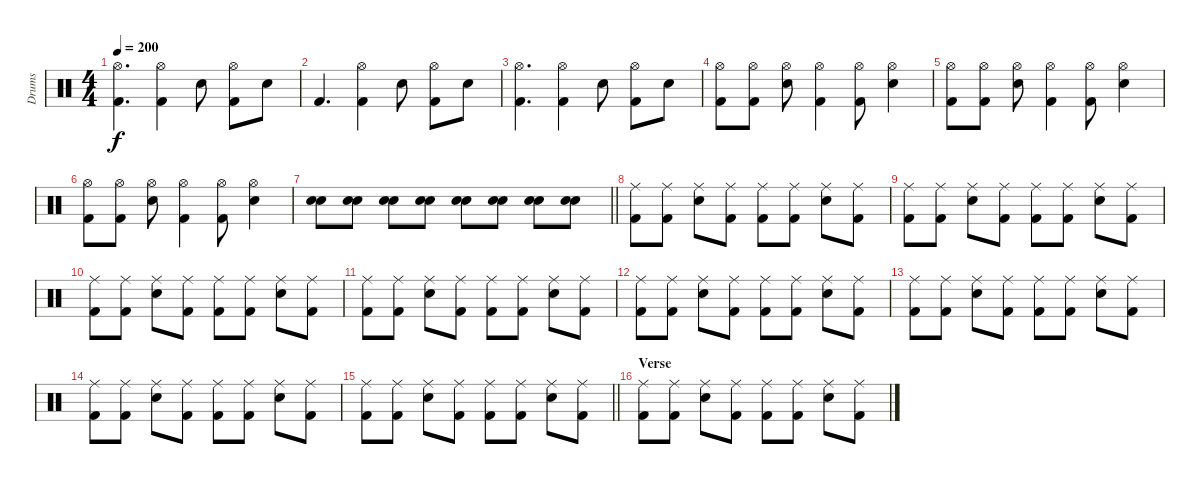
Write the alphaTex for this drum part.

\track ("Drums" "Drums") {instrument percussion}
\staff {score}
\articulation defaults
\ts (4 4)
\tempo 200
\clef neutral
\ks c
("Hi-Hat (open)" "Kick (hit) 2").4{d dy f} ("Hi-Hat (open)" "Kick (hit) 2").4 "Electric Snare (hit)".8 ("Hi-Hat (open)" "Kick (hit) 2").8 "Electric Snare (hit)".8 |
"Kick (hit) 2".4{d} ("Hi-Hat (open)" "Kick (hit) 2").4 "Electric Snare (hit)".8 ("Hi-Hat (open)" "Kick (hit) 2").8 "Electric Snare (hit)".8 |
("Hi-Hat (open)" "Kick (hit) 2").4{d} ("Hi-Hat (open)" "Kick (hit) 2").4 "Electric Snare (hit)".8 ("Hi-Hat (open)" "Kick (hit) 2").8 "Electric Snare (hit)".8 |
("Hi-Hat (open)" "Kick (hit) 2").8 ("Hi-Hat (open)" "Kick (hit) 2").8 ("Hi-Hat (open)" "Electric Snare (hit)").8 ("Hi-Hat (open)" "Kick (hit) 2").4 ("Hi-Hat (open)" "Kick (hit) 2").8 ("Hi-Hat (open)" "Electric Snare (hit)").4 |
("Hi-Hat (open)" "Kick (hit) 2").8 ("Hi-Hat (open)" "Kick (hit) 2").8 ("Hi-Hat (open)" "Electric Snare (hit)").8 ("Hi-Hat (open)" "Kick (hit) 2").4 ("Hi-Hat (open)" "Kick (hit) 2").8 ("Hi-Hat (open)" "Electric Snare (hit)").4 |
("Hi-Hat (open)" "Kick (hit) 2").8 ("Hi-Hat (open)" "Kick (hit) 2").8 ("Hi-Hat (open)" "Electric Snare (hit)").8 ("Hi-Hat (open)" "Kick (hit) 2").4 ("Hi-Hat (open)" "Kick (hit) 2").8 ("Hi-Hat (open)" "Electric Snare (hit)").4 |
\barLineRight lightlight
("Electric Snare (hit)" "Electric Snare (hit)").8 ("Electric Snare (hit)" "Electric Snare (hit)").8 ("Electric Snare (hit)" "Electric Snare (hit)").8 ("Electric Snare (hit)" "Electric Snare (hit)").8 ("Electric Snare (hit)" "Electric Snare (hit)").8 ("Electric Snare (hit)" "Electric Snare (hit)").8 ("Electric Snare (hit)" "Electric Snare (hit)").8 ("Electric Snare (hit)" "Electric Snare (hit)").8 |
("Ride (middle)" "Kick (hit) 2").8 ("Ride (middle)" "Kick (hit) 2").8 ("Ride (middle)" "Electric Snare (hit)").8 ("Ride (middle)" "Kick (hit) 2").8 ("Ride (middle)" "Kick (hit) 2").8 ("Ride (middle)" "Kick (hit) 2").8 ("Ride (middle)" "Electric Snare (hit)").8 ("Ride (middle)" "Kick (hit) 2").8 |
("Ride (middle)" "Kick (hit) 2").8 ("Ride (middle)" "Kick (hit) 2").8 ("Ride (middle)" "Electric Snare (hit)").8 ("Ride (middle)" "Kick (hit) 2").8 ("Ride (middle)" "Kick (hit) 2").8 ("Ride (middle)" "Kick (hit) 2").8 ("Ride (middle)" "Electric Snare (hit)").8 ("Ride (middle)" "Kick (hit) 2").8 |
("Ride (middle)" "Kick (hit) 2").8 ("Ride (middle)" "Kick (hit) 2").8 ("Ride (middle)" "Electric Snare (hit)").8 ("Ride (middle)" "Kick (hit) 2").8 ("Ride (middle)" "Kick (hit) 2").8 ("Ride (middle)" "Kick (hit) 2").8 ("Ride (middle)" "Electric Snare (hit)").8 ("Ride (middle)" "Kick (hit) 2").8 |
("Ride (middle)" "Kick (hit) 2").8 ("Ride (middle)" "Kick (hit) 2").8 ("Ride (middle)" "Electric Snare (hit)").8 ("Ride (middle)" "Kick (hit) 2").8 ("Ride (middle)" "Kick (hit) 2").8 ("Ride (middle)" "Kick (hit) 2").8 ("Ride (middle)" "Electric Snare (hit)").8 ("Ride (middle)" "Kick (hit) 2").8 |
("Ride (middle)" "Kick (hit) 2").8 ("Ride (middle)" "Kick (hit) 2").8 ("Ride (middle)" "Electric Snare (hit)").8 ("Ride (middle)" "Kick (hit) 2").8 ("Ride (middle)" "Kick (hit) 2").8 ("Ride (middle)" "Kick (hit) 2").8 ("Ride (middle)" "Electric Snare (hit)").8 ("Ride (middle)" "Kick (hit) 2").8 |
("Ride (middle)" "Kick (hit) 2").8 ("Ride (middle)" "Kick (hit) 2").8 ("Ride (middle)" "Electric Snare (hit)").8 ("Ride (middle)" "Kick (hit) 2").8 ("Ride (middle)" "Kick (hit) 2").8 ("Ride (middle)" "Kick (hit) 2").8 ("Ride (middle)" "Electric Snare (hit)").8 ("Ride (middle)" "Kick (hit) 2").8 |
("Ride (middle)" "Kick (hit) 2").8 ("Ride (middle)" "Kick (hit) 2").8 ("Ride (middle)" "Electric Snare (hit)").8 ("Ride (middle)" "Kick (hit) 2").8 ("Ride (middle)" "Kick (hit) 2").8 ("Ride (middle)" "Kick (hit) 2").8 ("Ride (middle)" "Electric Snare (hit)").8 ("Ride (middle)" "Kick (hit) 2").8 |
\barLineRight lightlight
("Ride (middle)" "Kick (hit) 2").8 ("Ride (middle)" "Kick (hit) 2").8 ("Ride (middle)" "Electric Snare (hit)").8 ("Ride (middle)" "Kick (hit) 2").8 ("Ride (middle)" "Kick (hit) 2").8 ("Ride (middle)" "Kick (hit) 2").8 ("Ride (middle)" "Electric Snare (hit)").8 ("Ride (middle)" "Kick (hit) 2").8 |
\section ("" "Verse")
("Ride (middle)" "Kick (hit) 2").8 ("Ride (middle)" "Kick (hit) 2").8 ("Ride (middle)" "Electric Snare (hit)").8 ("Ride (middle)" "Kick (hit) 2").8 ("Ride (middle)" "Kick (hit) 2").8 ("Ride (middle)" "Kick (hit) 2").8 ("Ride (middle)" "Electric Snare (hit)").8 ("Ride (middle)" "Kick (hit) 2").8
